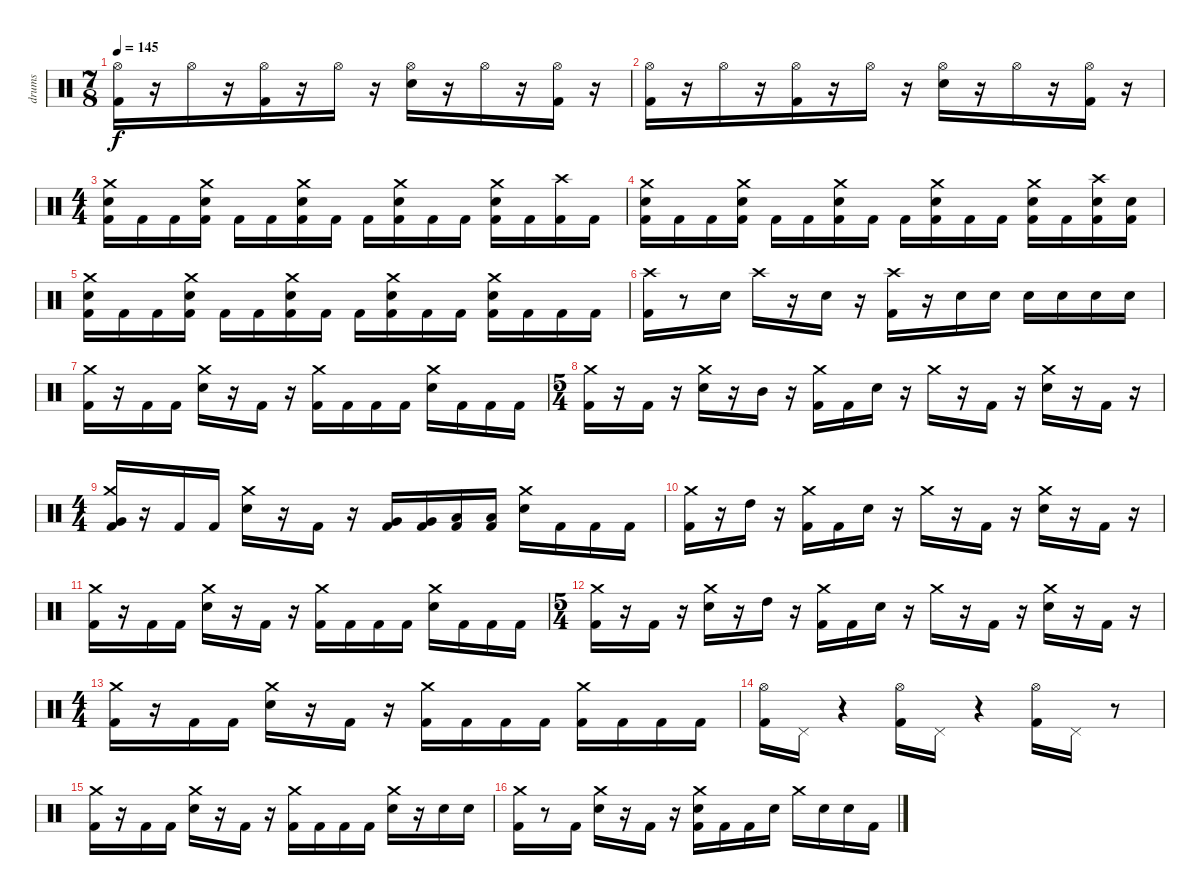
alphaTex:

\track ("drums" "drums") {instrument percussion}
\staff {score}
\articulation defaults
\ts (7 8)
\tempo 145
\clef neutral
\ks c
("Kick (hit) 2" "Hi-Hat (open)").16{dy f} r.16 "Hi-Hat (open)".16 r.16 ("Kick (hit) 2" "Hi-Hat (open)").16 r.16 "Hi-Hat (open)".16 r.16 ("Snare (hit) 2" "Hi-Hat (open)").16 r.16 "Hi-Hat (open)".16 r.16 ("Kick (hit) 2" "Hi-Hat (open)").16 r.16 |
("Kick (hit) 2" "Hi-Hat (open)").16 r.16 "Hi-Hat (open)".16 r.16 ("Kick (hit) 2" "Hi-Hat (open)").16 r.16 "Hi-Hat (open)".16 r.16 ("Snare (hit) 2" "Hi-Hat (open)").16 r.16 "Hi-Hat (open)".16 r.16 ("Kick (hit) 2" "Hi-Hat (open)").16 r.16 |
\ts (4 4)
("Kick (hit) 2" "Snare (hit) 2" "Crash medium (hit)").16 "Kick (hit) 2".16 "Kick (hit) 2".16 ("Kick (hit) 2" "Snare (hit) 2" "Crash medium (hit)").16 "Kick (hit) 2".16 "Kick (hit) 2".16 ("Kick (hit) 2" "Snare (hit) 2" "Crash medium (hit)").16 "Kick (hit) 2".16 "Kick (hit) 2".16 ("Kick (hit) 2" "Snare (hit) 2" "Crash medium (hit)").16 "Kick (hit) 2".16 "Kick (hit) 2".16 ("Kick (hit) 2" "Snare (hit) 2" "Crash medium (hit)").16 "Kick (hit) 2".16 ("Kick (hit) 2" "Crash high (hit)").16 "Kick (hit) 2".16 |
("Kick (hit) 2" "Snare (hit) 2" "Crash medium (hit)").16 "Kick (hit) 2".16 "Kick (hit) 2".16 ("Kick (hit) 2" "Snare (hit) 2" "Crash medium (hit)").16 "Kick (hit) 2".16 "Kick (hit) 2".16 ("Kick (hit) 2" "Snare (hit) 2" "Crash medium (hit)").16 "Kick (hit) 2".16 "Kick (hit) 2".16 ("Kick (hit) 2" "Snare (hit) 2" "Crash medium (hit)").16 "Kick (hit) 2".16 "Kick (hit) 2".16 ("Kick (hit) 2" "Snare (hit) 2" "Crash medium (hit)").16 "Kick (hit) 2".16 ("Kick (hit) 2" "Snare (hit) 2" "Crash high (hit)").16 ("Kick (hit) 2" "Snare (hit) 2").16 |
("Kick (hit) 2" "Snare (hit) 2" "Crash medium (hit)").16 "Kick (hit) 2".16 "Kick (hit) 2".16 ("Kick (hit) 2" "Snare (hit) 2" "Crash medium (hit)").16 "Kick (hit) 2".16 "Kick (hit) 2".16 ("Kick (hit) 2" "Snare (hit) 2" "Crash medium (hit)").16 "Kick (hit) 2".16 "Kick (hit) 2".16 ("Kick (hit) 2" "Snare (hit) 2" "Crash medium (hit)").16 "Kick (hit) 2".16 "Kick (hit) 2".16 ("Kick (hit) 2" "Snare (hit) 2" "Crash medium (hit)").16 "Kick (hit) 2".16 "Kick (hit) 2".16 "Kick (hit) 2".16 |
("Kick (hit) 2" "Crash high (hit)").16 r.8 "Snare (hit) 2".16 "Crash high (hit)".16 r.16 "Snare (hit) 2".16 r.16 ("Kick (hit) 2" "Crash high (hit)").16 r.16 "Snare (hit) 2".16 "Snare (hit) 2".16 "Snare (hit) 2".16 "Snare (hit) 2".16 "Snare (hit) 2".16 "Snare (hit) 2".16 |
("Kick (hit) 2" "Crash medium (hit)").16 r.16 "Kick (hit) 2".16 "Kick (hit) 2".16 ("Snare (hit) 2" "Crash medium (hit)").16 r.16 "Kick (hit) 2".16 r.16 ("Kick (hit) 2" "Crash medium (hit)").16 "Kick (hit) 2".16 "Kick (hit) 2".16 "Kick (hit) 2".16 ("Snare (hit) 2" "Crash medium (hit)").16 "Kick (hit) 2".16 "Kick (hit) 2".16 "Kick (hit) 2".16 |
\ts (5 4)
("Kick (hit) 2" "Crash medium (hit)").16 r.16 "Kick (hit) 2".16 r.16 ("Snare (hit) 2" "Crash medium (hit)").16 r.16 "Mid Tom (hit)".16 r.16 ("Kick (hit) 2" "Crash medium (hit)").16 "Kick (hit) 2".16 "Snare (hit) 2".16 r.16 "Crash medium (hit)".16 r.16 "Kick (hit) 2".16 r.16 ("Snare (hit) 2" "Crash medium (hit)").16 r.16 "Kick (hit) 2".16 r.16 |
\ts (4 4)
("Kick (hit) 2" "Very Low Tom (hit)" "Crash medium (hit)").16 r.16 "Kick (hit) 2".16 "Kick (hit) 2".16 ("Snare (hit) 2" "Crash medium (hit)").16 r.16 "Kick (hit) 2".16 r.16 ("Kick (hit) 2" "Very Low Tom (hit)").16 ("Kick (hit) 2" "Very Low Tom (hit)").16 ("Kick (hit) 2" "Low Floor Tom (hit)").16 ("Kick (hit) 2" "Low Floor Tom (hit)").16 ("Snare (hit) 2" "Crash medium (hit)").16 "Kick (hit) 2".16 "Kick (hit) 2".16 "Kick (hit) 2".16 |
("Kick (hit) 2" "Crash medium (hit)").16 r.16 "High Tom (hit)".16 r.16 ("Kick (hit) 2" "Crash medium (hit)").16 "Kick (hit) 2".16 "Snare (hit) 2".16 r.16 "Crash medium (hit)".16 r.16 "Kick (hit) 2".16 r.16 ("Snare (hit) 2" "Crash medium (hit)").16 r.16 "Kick (hit) 2".16 r.16 |
("Kick (hit) 2" "Crash medium (hit)").16 r.16 "Kick (hit) 2".16 "Kick (hit) 2".16 ("Snare (hit) 2" "Crash medium (hit)").16 r.16 "Kick (hit) 2".16 r.16 ("Kick (hit) 2" "Crash medium (hit)").16 "Kick (hit) 2".16 "Kick (hit) 2".16 "Kick (hit) 2".16 ("Snare (hit) 2" "Crash medium (hit)").16 "Kick (hit) 2".16 "Kick (hit) 2".16 "Kick (hit) 2".16 |
\ts (5 4)
("Kick (hit) 2" "Crash medium (hit)").16 r.16 "Kick (hit) 2".16 r.16 ("Snare (hit) 2" "Crash medium (hit)").16 r.16 "High Tom (hit)".16 r.16 ("Kick (hit) 2" "Crash medium (hit)").16 "Kick (hit) 2".16 "Snare (hit) 2".16 r.16 "Crash medium (hit)".16 r.16 "Kick (hit) 2".16 r.16 ("Snare (hit) 2" "Crash medium (hit)").16 r.16 "Kick (hit) 2".16 r.16 |
\ts (4 4)
("Kick (hit) 2" "Crash medium (hit)").16 r.16 "Kick (hit) 2".16 "Kick (hit) 2".16 ("Snare (hit) 2" "Crash medium (hit)").16 r.16 "Kick (hit) 2".16 r.16 ("Kick (hit) 2" "Crash medium (hit)").16 "Kick (hit) 2".16 "Kick (hit) 2".16 "Kick (hit) 2".16 ("Kick (hit) 2" "Crash medium (hit)").16 "Kick (hit) 2".16 "Kick (hit) 2".16 "Kick (hit) 2".16 |
("Kick (hit) 2" "Hi-Hat (open)").16 "Pedal Hi-Hat (hit)".16 r.4 ("Kick (hit) 2" "Hi-Hat (open)").16 "Pedal Hi-Hat (hit)".16 r.4 ("Kick (hit) 2" "Hi-Hat (open)").16 "Pedal Hi-Hat (hit)".16 r.8 |
("Kick (hit) 2" "Crash medium (hit)").16 r.16 "Kick (hit) 2".16 "Kick (hit) 2".16 ("Snare (hit) 2" "Crash medium (hit)").16 r.16 "Kick (hit) 2".16 r.16 ("Kick (hit) 2" "Crash medium (hit)").16 "Kick (hit) 2".16 "Kick (hit) 2".16 "Kick (hit) 2".16 ("Snare (hit) 2" "Crash medium (hit)").16 r.16 "Snare (hit) 2".16 "Snare (hit) 2".16 |
("Kick (hit) 2" "Crash medium (hit)").16 r.8 "Kick (hit) 2".16 ("Snare (hit) 2" "Crash medium (hit)").16 r.16 "Kick (hit) 2".16 r.16 ("Kick (hit) 2" "Snare (hit) 2" "Crash medium (hit)").16 "Kick (hit) 2".16 "Kick (hit) 2".16 "Snare (hit) 2".16 "Crash medium (hit)".16 "Snare (hit) 2".16 "Snare (hit) 2".16 "Kick (hit) 2".16
